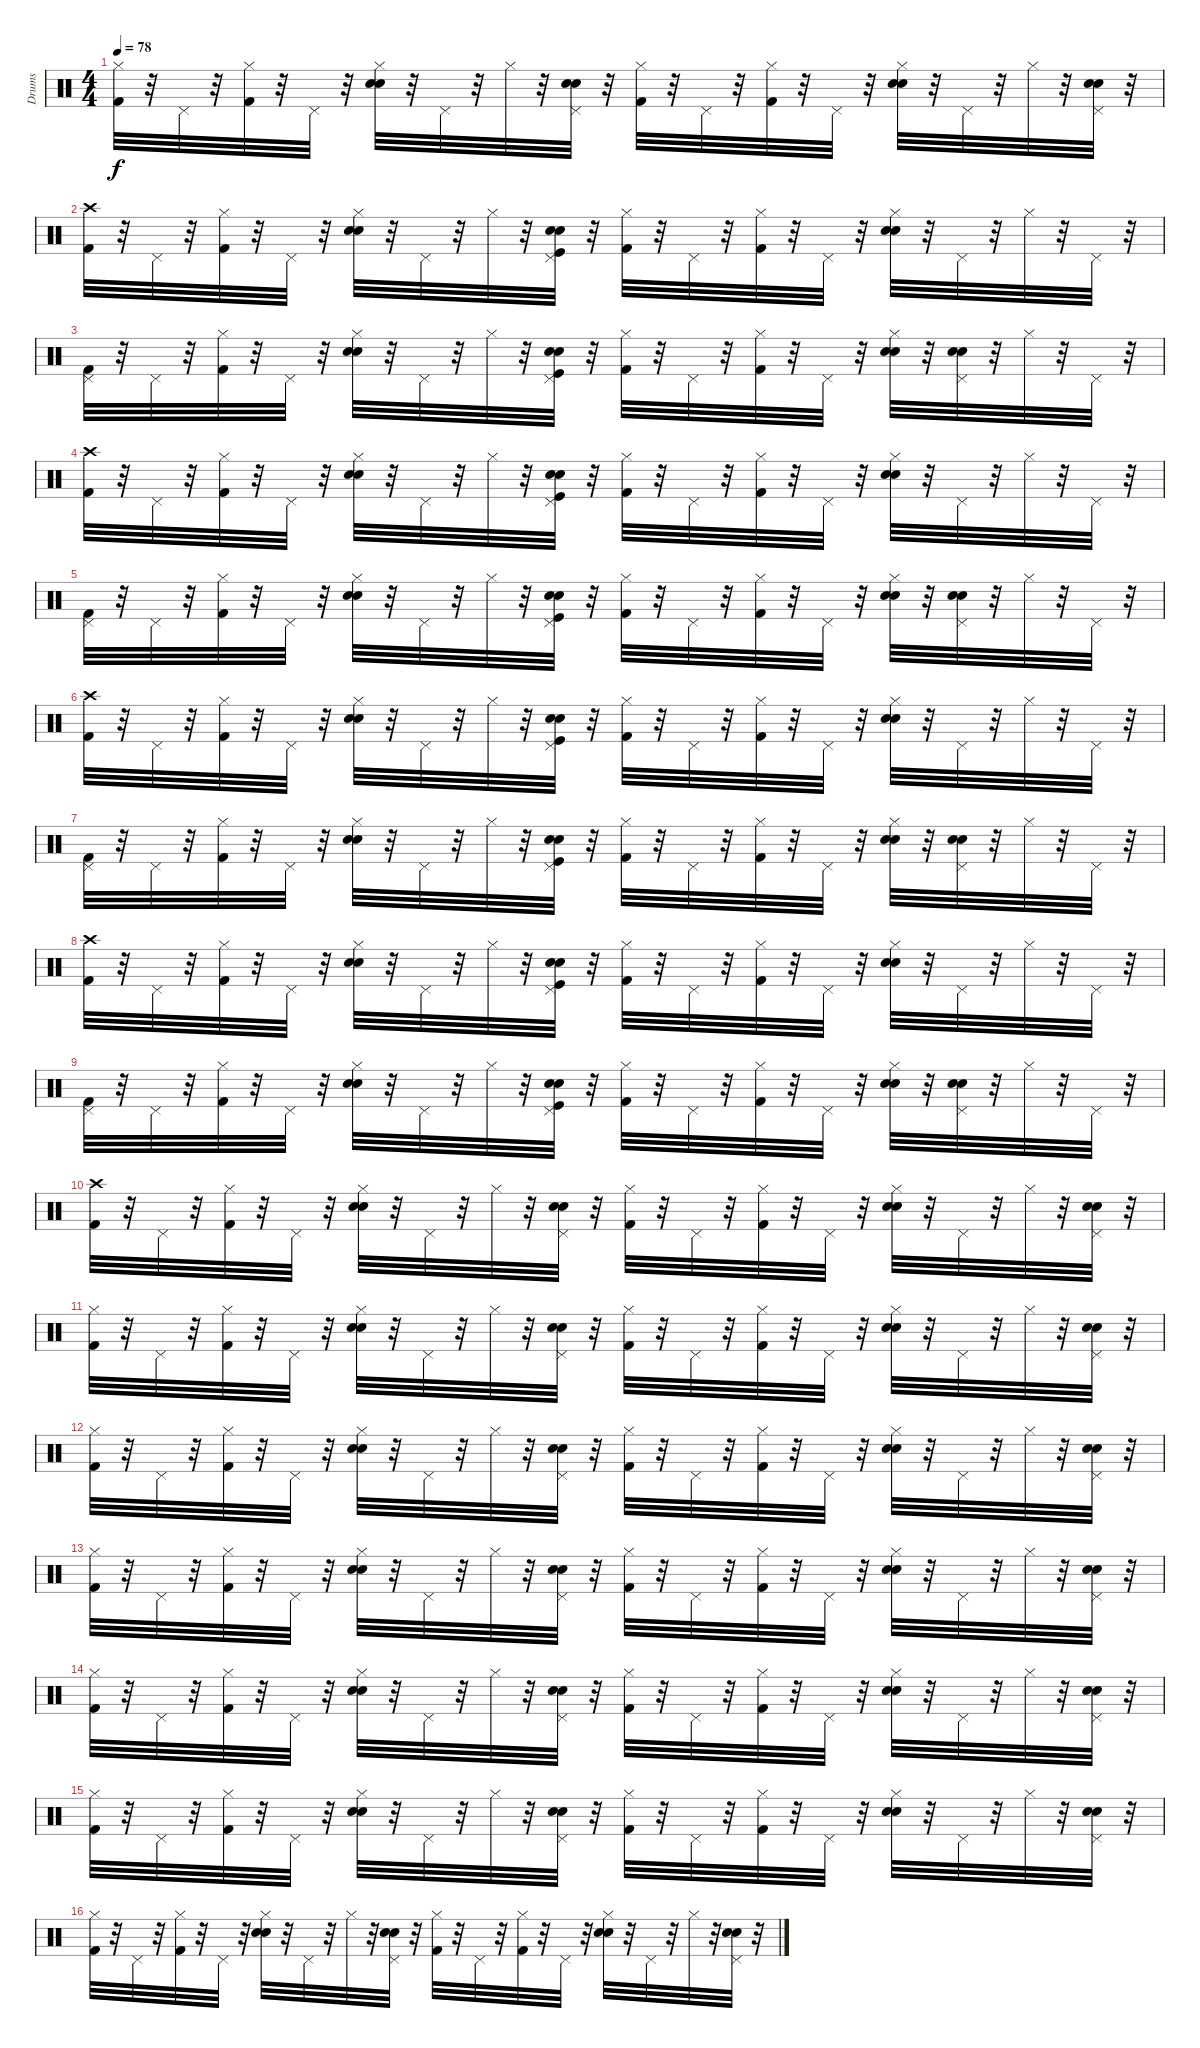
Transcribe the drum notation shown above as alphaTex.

\track ("Drums" "Drums") {instrument percussion}
\staff {score}
\articulation defaults
\ts (4 4)
\tempo 78
\clef neutral
\ks c
("Hi-Hat (closed)" "Kick (hit) 2").32{dy f} r.32 "Pedal Hi-Hat (hit)".32 r.32 ("Kick (hit) 2" "Hi-Hat (closed)").32 r.32 "Pedal Hi-Hat (hit)".32 r.32 ("Snare (hit) 2" "Electric Snare (hit)" "Hi-Hat (closed)").32 r.32 "Pedal Hi-Hat (hit)".32 r.32 "Hi-Hat (closed)".32 r.32 ("Snare (hit) 2" "Electric Snare (hit)" "Pedal Hi-Hat (hit)").32 r.32 ("Kick (hit) 2" "Hi-Hat (closed)").32 r.32 "Pedal Hi-Hat (hit)".32 r.32 ("Kick (hit) 2" "Hi-Hat (closed)").32 r.32 "Pedal Hi-Hat (hit)".32 r.32 ("Electric Snare (hit)" "Snare (hit) 2" "Hi-Hat (closed)").32 r.32 "Pedal Hi-Hat (hit)".32 r.32 "Hi-Hat (closed)".32 r.32 ("Pedal Hi-Hat (hit)" "Snare (hit) 2" "Electric Snare (hit)").32 r.32 |
("Crash high (hit)" "Kick (hit) 2").32 r.32 "Pedal Hi-Hat (hit)".32 r.32 ("Hi-Hat (closed)" "Kick (hit) 2").32 r.32 "Pedal Hi-Hat (hit)".32 r.32 ("Hi-Hat (closed)" "Hand Clap (hit)" "Electric Snare (hit)").32 r.32 "Pedal Hi-Hat (hit)".32 r.32 "Hi-Hat (closed)".32 r.32 ("Hand Clap (hit)" "Electric Snare (hit)" "Pedal Hi-Hat (hit)" "Kick (hit)").32 r.32 ("Hi-Hat (closed)" "Kick (hit) 2").32 r.32 "Pedal Hi-Hat (hit)".32 r.32 ("Hi-Hat (closed)" "Kick (hit) 2").32 r.32 "Pedal Hi-Hat (hit)".32 r.32 ("Hi-Hat (closed)" "Hand Clap (hit)" "Electric Snare (hit)").32 r.32 "Pedal Hi-Hat (hit)".32 r.32 "Hi-Hat (closed)".32 r.32 "Pedal Hi-Hat (hit)".32 r.32 |
("Pedal Hi-Hat (hit)" "Kick (hit) 2").32 r.32 "Pedal Hi-Hat (hit)".32 r.32 ("Hi-Hat (closed)" "Kick (hit) 2").32 r.32 "Pedal Hi-Hat (hit)".32 r.32 ("Hi-Hat (closed)" "Hand Clap (hit)" "Electric Snare (hit)").32 r.32 "Pedal Hi-Hat (hit)".32 r.32 "Hi-Hat (closed)".32 r.32 ("Hand Clap (hit)" "Electric Snare (hit)" "Pedal Hi-Hat (hit)" "Kick (hit)").32 r.32 ("Hi-Hat (closed)" "Kick (hit) 2").32 r.32 "Pedal Hi-Hat (hit)".32 r.32 ("Hi-Hat (closed)" "Kick (hit) 2").32 r.32 "Pedal Hi-Hat (hit)".32 r.32 ("Hi-Hat (closed)" "Hand Clap (hit)" "Electric Snare (hit)").32 r.32 ("Hand Clap (hit)" "Electric Snare (hit)" "Pedal Hi-Hat (hit)").32 r.32 "Hi-Hat (closed)".32 r.32 "Pedal Hi-Hat (hit)".32 r.32 |
("Crash high (hit)" "Kick (hit) 2").32 r.32 "Pedal Hi-Hat (hit)".32 r.32 ("Hi-Hat (closed)" "Kick (hit) 2").32 r.32 "Pedal Hi-Hat (hit)".32 r.32 ("Hi-Hat (closed)" "Hand Clap (hit)" "Electric Snare (hit)").32 r.32 "Pedal Hi-Hat (hit)".32 r.32 "Hi-Hat (closed)".32 r.32 ("Hand Clap (hit)" "Electric Snare (hit)" "Pedal Hi-Hat (hit)" "Kick (hit)").32 r.32 ("Hi-Hat (closed)" "Kick (hit) 2").32 r.32 "Pedal Hi-Hat (hit)".32 r.32 ("Hi-Hat (closed)" "Kick (hit) 2").32 r.32 "Pedal Hi-Hat (hit)".32 r.32 ("Hi-Hat (closed)" "Hand Clap (hit)" "Electric Snare (hit)").32 r.32 "Pedal Hi-Hat (hit)".32 r.32 "Hi-Hat (closed)".32 r.32 "Pedal Hi-Hat (hit)".32 r.32 |
("Pedal Hi-Hat (hit)" "Kick (hit) 2").32 r.32 "Pedal Hi-Hat (hit)".32 r.32 ("Hi-Hat (closed)" "Kick (hit) 2").32 r.32 "Pedal Hi-Hat (hit)".32 r.32 ("Hi-Hat (closed)" "Hand Clap (hit)" "Electric Snare (hit)").32 r.32 "Pedal Hi-Hat (hit)".32 r.32 "Hi-Hat (closed)".32 r.32 ("Hand Clap (hit)" "Electric Snare (hit)" "Pedal Hi-Hat (hit)" "Kick (hit)").32 r.32 ("Hi-Hat (closed)" "Kick (hit) 2").32 r.32 "Pedal Hi-Hat (hit)".32 r.32 ("Hi-Hat (closed)" "Kick (hit) 2").32 r.32 "Pedal Hi-Hat (hit)".32 r.32 ("Hi-Hat (closed)" "Hand Clap (hit)" "Electric Snare (hit)").32 r.32 ("Hand Clap (hit)" "Electric Snare (hit)" "Pedal Hi-Hat (hit)").32 r.32 "Hi-Hat (closed)".32 r.32 "Pedal Hi-Hat (hit)".32 r.32 |
("Crash high (hit)" "Kick (hit) 2").32 r.32 "Pedal Hi-Hat (hit)".32 r.32 ("Hi-Hat (closed)" "Kick (hit) 2").32 r.32 "Pedal Hi-Hat (hit)".32 r.32 ("Hi-Hat (closed)" "Hand Clap (hit)" "Electric Snare (hit)").32 r.32 "Pedal Hi-Hat (hit)".32 r.32 "Hi-Hat (closed)".32 r.32 ("Hand Clap (hit)" "Electric Snare (hit)" "Pedal Hi-Hat (hit)" "Kick (hit)").32 r.32 ("Hi-Hat (closed)" "Kick (hit) 2").32 r.32 "Pedal Hi-Hat (hit)".32 r.32 ("Hi-Hat (closed)" "Kick (hit) 2").32 r.32 "Pedal Hi-Hat (hit)".32 r.32 ("Hi-Hat (closed)" "Hand Clap (hit)" "Electric Snare (hit)").32 r.32 "Pedal Hi-Hat (hit)".32 r.32 "Hi-Hat (closed)".32 r.32 "Pedal Hi-Hat (hit)".32 r.32 |
("Pedal Hi-Hat (hit)" "Kick (hit) 2").32 r.32 "Pedal Hi-Hat (hit)".32 r.32 ("Hi-Hat (closed)" "Kick (hit) 2").32 r.32 "Pedal Hi-Hat (hit)".32 r.32 ("Hi-Hat (closed)" "Hand Clap (hit)" "Electric Snare (hit)").32 r.32 "Pedal Hi-Hat (hit)".32 r.32 "Hi-Hat (closed)".32 r.32 ("Hand Clap (hit)" "Electric Snare (hit)" "Pedal Hi-Hat (hit)" "Kick (hit)").32 r.32 ("Hi-Hat (closed)" "Kick (hit) 2").32 r.32 "Pedal Hi-Hat (hit)".32 r.32 ("Hi-Hat (closed)" "Kick (hit) 2").32 r.32 "Pedal Hi-Hat (hit)".32 r.32 ("Hi-Hat (closed)" "Hand Clap (hit)" "Electric Snare (hit)").32 r.32 ("Hand Clap (hit)" "Electric Snare (hit)" "Pedal Hi-Hat (hit)").32 r.32 "Hi-Hat (closed)".32 r.32 "Pedal Hi-Hat (hit)".32 r.32 |
("Crash high (hit)" "Kick (hit) 2").32 r.32 "Pedal Hi-Hat (hit)".32 r.32 ("Hi-Hat (closed)" "Kick (hit) 2").32 r.32 "Pedal Hi-Hat (hit)".32 r.32 ("Hi-Hat (closed)" "Hand Clap (hit)" "Electric Snare (hit)").32 r.32 "Pedal Hi-Hat (hit)".32 r.32 "Hi-Hat (closed)".32 r.32 ("Hand Clap (hit)" "Electric Snare (hit)" "Pedal Hi-Hat (hit)" "Kick (hit)").32 r.32 ("Hi-Hat (closed)" "Kick (hit) 2").32 r.32 "Pedal Hi-Hat (hit)".32 r.32 ("Hi-Hat (closed)" "Kick (hit) 2").32 r.32 "Pedal Hi-Hat (hit)".32 r.32 ("Hi-Hat (closed)" "Hand Clap (hit)" "Electric Snare (hit)").32 r.32 "Pedal Hi-Hat (hit)".32 r.32 "Hi-Hat (closed)".32 r.32 "Pedal Hi-Hat (hit)".32 r.32 |
("Pedal Hi-Hat (hit)" "Kick (hit) 2").32 r.32 "Pedal Hi-Hat (hit)".32 r.32 ("Hi-Hat (closed)" "Kick (hit) 2").32 r.32 "Pedal Hi-Hat (hit)".32 r.32 ("Hi-Hat (closed)" "Hand Clap (hit)" "Electric Snare (hit)").32 r.32 "Pedal Hi-Hat (hit)".32 r.32 "Hi-Hat (closed)".32 r.32 ("Hand Clap (hit)" "Electric Snare (hit)" "Pedal Hi-Hat (hit)" "Kick (hit)").32 r.32 ("Hi-Hat (closed)" "Kick (hit) 2").32 r.32 "Pedal Hi-Hat (hit)".32 r.32 ("Hi-Hat (closed)" "Kick (hit) 2").32 r.32 "Pedal Hi-Hat (hit)".32 r.32 ("Hi-Hat (closed)" "Hand Clap (hit)" "Electric Snare (hit)").32 r.32 ("Hand Clap (hit)" "Electric Snare (hit)" "Pedal Hi-Hat (hit)").32 r.32 "Hi-Hat (closed)".32 r.32 "Pedal Hi-Hat (hit)".32 r.32 |
("Kick (hit) 2" "Crash high (hit)").32 r.32 "Pedal Hi-Hat (hit)".32 r.32 ("Kick (hit) 2" "Hi-Hat (closed)").32 r.32 "Pedal Hi-Hat (hit)".32 r.32 ("Snare (hit) 2" "Electric Snare (hit)" "Hi-Hat (closed)").32 r.32 "Pedal Hi-Hat (hit)".32 r.32 "Hi-Hat (closed)".32 r.32 ("Snare (hit) 2" "Electric Snare (hit)" "Pedal Hi-Hat (hit)").32 r.32 ("Kick (hit) 2" "Hi-Hat (closed)").32 r.32 "Pedal Hi-Hat (hit)".32 r.32 ("Kick (hit) 2" "Hi-Hat (closed)").32 r.32 "Pedal Hi-Hat (hit)".32 r.32 ("Electric Snare (hit)" "Snare (hit) 2" "Hi-Hat (closed)").32 r.32 "Pedal Hi-Hat (hit)".32 r.32 "Hi-Hat (closed)".32 r.32 ("Pedal Hi-Hat (hit)" "Snare (hit) 2" "Electric Snare (hit)").32 r.32 |
("Hi-Hat (closed)" "Kick (hit) 2").32 r.32 "Pedal Hi-Hat (hit)".32 r.32 ("Kick (hit) 2" "Hi-Hat (closed)").32 r.32 "Pedal Hi-Hat (hit)".32 r.32 ("Snare (hit) 2" "Electric Snare (hit)" "Hi-Hat (closed)").32 r.32 "Pedal Hi-Hat (hit)".32 r.32 "Hi-Hat (closed)".32 r.32 ("Snare (hit) 2" "Electric Snare (hit)" "Pedal Hi-Hat (hit)").32 r.32 ("Kick (hit) 2" "Hi-Hat (closed)").32 r.32 "Pedal Hi-Hat (hit)".32 r.32 ("Kick (hit) 2" "Hi-Hat (closed)").32 r.32 "Pedal Hi-Hat (hit)".32 r.32 ("Electric Snare (hit)" "Snare (hit) 2" "Hi-Hat (closed)").32 r.32 "Pedal Hi-Hat (hit)".32 r.32 "Hi-Hat (closed)".32 r.32 ("Pedal Hi-Hat (hit)" "Snare (hit) 2" "Electric Snare (hit)").32 r.32 |
("Hi-Hat (closed)" "Kick (hit) 2").32 r.32 "Pedal Hi-Hat (hit)".32 r.32 ("Kick (hit) 2" "Hi-Hat (closed)").32 r.32 "Pedal Hi-Hat (hit)".32 r.32 ("Snare (hit) 2" "Electric Snare (hit)" "Hi-Hat (closed)").32 r.32 "Pedal Hi-Hat (hit)".32 r.32 "Hi-Hat (closed)".32 r.32 ("Snare (hit) 2" "Electric Snare (hit)" "Pedal Hi-Hat (hit)").32 r.32 ("Kick (hit) 2" "Hi-Hat (closed)").32 r.32 "Pedal Hi-Hat (hit)".32 r.32 ("Kick (hit) 2" "Hi-Hat (closed)").32 r.32 "Pedal Hi-Hat (hit)".32 r.32 ("Electric Snare (hit)" "Snare (hit) 2" "Hi-Hat (closed)").32 r.32 "Pedal Hi-Hat (hit)".32 r.32 "Hi-Hat (closed)".32 r.32 ("Pedal Hi-Hat (hit)" "Snare (hit) 2" "Electric Snare (hit)").32 r.32 |
("Hi-Hat (closed)" "Kick (hit) 2").32 r.32 "Pedal Hi-Hat (hit)".32 r.32 ("Kick (hit) 2" "Hi-Hat (closed)").32 r.32 "Pedal Hi-Hat (hit)".32 r.32 ("Snare (hit) 2" "Electric Snare (hit)" "Hi-Hat (closed)").32 r.32 "Pedal Hi-Hat (hit)".32 r.32 "Hi-Hat (closed)".32 r.32 ("Snare (hit) 2" "Electric Snare (hit)" "Pedal Hi-Hat (hit)").32 r.32 ("Kick (hit) 2" "Hi-Hat (closed)").32 r.32 "Pedal Hi-Hat (hit)".32 r.32 ("Kick (hit) 2" "Hi-Hat (closed)").32 r.32 "Pedal Hi-Hat (hit)".32 r.32 ("Electric Snare (hit)" "Snare (hit) 2" "Hi-Hat (closed)").32 r.32 "Pedal Hi-Hat (hit)".32 r.32 "Hi-Hat (closed)".32 r.32 ("Pedal Hi-Hat (hit)" "Snare (hit) 2" "Electric Snare (hit)").32 r.32 |
("Hi-Hat (closed)" "Kick (hit) 2").32 r.32 "Pedal Hi-Hat (hit)".32 r.32 ("Kick (hit) 2" "Hi-Hat (closed)").32 r.32 "Pedal Hi-Hat (hit)".32 r.32 ("Snare (hit) 2" "Electric Snare (hit)" "Hi-Hat (closed)").32 r.32 "Pedal Hi-Hat (hit)".32 r.32 "Hi-Hat (closed)".32 r.32 ("Snare (hit) 2" "Electric Snare (hit)" "Pedal Hi-Hat (hit)").32 r.32 ("Kick (hit) 2" "Hi-Hat (closed)").32 r.32 "Pedal Hi-Hat (hit)".32 r.32 ("Kick (hit) 2" "Hi-Hat (closed)").32 r.32 "Pedal Hi-Hat (hit)".32 r.32 ("Electric Snare (hit)" "Snare (hit) 2" "Hi-Hat (closed)").32 r.32 "Pedal Hi-Hat (hit)".32 r.32 "Hi-Hat (closed)".32 r.32 ("Pedal Hi-Hat (hit)" "Snare (hit) 2" "Electric Snare (hit)").32 r.32 |
("Hi-Hat (closed)" "Kick (hit) 2").32 r.32 "Pedal Hi-Hat (hit)".32 r.32 ("Kick (hit) 2" "Hi-Hat (closed)").32 r.32 "Pedal Hi-Hat (hit)".32 r.32 ("Snare (hit) 2" "Electric Snare (hit)" "Hi-Hat (closed)").32 r.32 "Pedal Hi-Hat (hit)".32 r.32 "Hi-Hat (closed)".32 r.32 ("Snare (hit) 2" "Electric Snare (hit)" "Pedal Hi-Hat (hit)").32 r.32 ("Kick (hit) 2" "Hi-Hat (closed)").32 r.32 "Pedal Hi-Hat (hit)".32 r.32 ("Kick (hit) 2" "Hi-Hat (closed)").32 r.32 "Pedal Hi-Hat (hit)".32 r.32 ("Electric Snare (hit)" "Snare (hit) 2" "Hi-Hat (closed)").32 r.32 "Pedal Hi-Hat (hit)".32 r.32 "Hi-Hat (closed)".32 r.32 ("Pedal Hi-Hat (hit)" "Snare (hit) 2" "Electric Snare (hit)").32 r.32 |
("Hi-Hat (closed)" "Kick (hit) 2").32 r.32 "Pedal Hi-Hat (hit)".32 r.32 ("Kick (hit) 2" "Hi-Hat (closed)").32 r.32 "Pedal Hi-Hat (hit)".32 r.32 ("Snare (hit) 2" "Electric Snare (hit)" "Hi-Hat (closed)").32 r.32 "Pedal Hi-Hat (hit)".32 r.32 "Hi-Hat (closed)".32 r.32 ("Snare (hit) 2" "Electric Snare (hit)" "Pedal Hi-Hat (hit)").32 r.32 ("Kick (hit) 2" "Hi-Hat (closed)").32 r.32 "Pedal Hi-Hat (hit)".32 r.32 ("Kick (hit) 2" "Hi-Hat (closed)").32 r.32 "Pedal Hi-Hat (hit)".32 r.32 ("Electric Snare (hit)" "Snare (hit) 2" "Hi-Hat (closed)").32 r.32 "Pedal Hi-Hat (hit)".32 r.32 "Hi-Hat (closed)".32 r.32 ("Pedal Hi-Hat (hit)" "Snare (hit) 2" "Electric Snare (hit)").32 r.32
